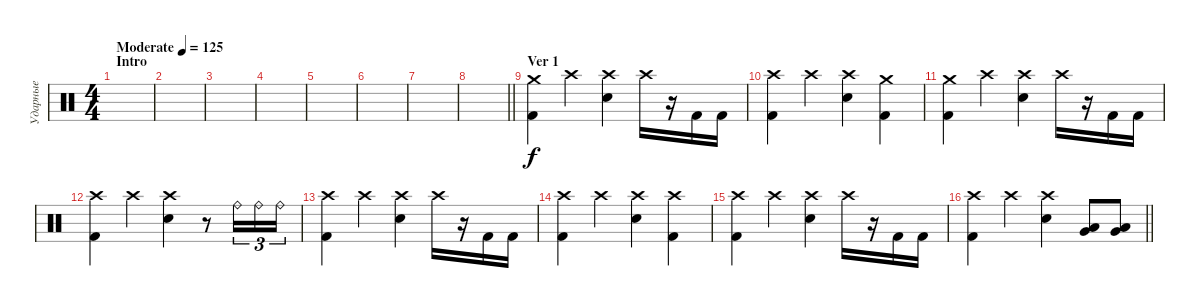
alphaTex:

\track ("Ударные" "Ударные") {instrument percussion}
\staff {score}
\articulation defaults
\ts (4 4)
\section ("" "Intro")
\tempo (125 "Moderate")
\clef neutral
\ks c
|
|
|
|
|
|
|
\barLineRight lightlight
|
\section ("" "Ver 1")
("Crash medium (hit)" "Kick (hit) 2").4 "Crash high (hit)".4 ("Crash high (hit)" "Electric Snare (hit)").4 "Crash high (hit)".16 r.16 "Kick (hit) 2".16 "Kick (hit) 2".16 |
("Crash high (hit)" "Kick (hit) 2").4 "Crash high (hit)".4 ("Crash high (hit)" "Electric Snare (hit)").4 ("Crash medium (hit)" "Kick (hit) 2").4 |
("Crash medium (hit)" "Kick (hit) 2").4 "Crash high (hit)".4 ("Crash high (hit)" "Electric Snare (hit)").4 "Crash high (hit)".16 r.16 "Kick (hit) 2".16 "Kick (hit) 2".16 |
("Crash high (hit)" "Kick (hit) 2").4 "Crash high (hit)".4 ("Crash high (hit)" "Electric Snare (hit)").4 r.8 "Ride (bell)".16{tu (3 2)} "Ride (bell)".16{tu (3 2)} "Ride (bell)".16{tu (3 2)} |
("Crash high (hit)" "Kick (hit) 2").4 "Crash high (hit)".4 ("Crash high (hit)" "Electric Snare (hit)").4 "Crash high (hit)".16 r.16 "Kick (hit) 2".16 "Kick (hit) 2".16 |
("Crash high (hit)" "Kick (hit) 2").4 "Crash high (hit)".4 ("Crash high (hit)" "Electric Snare (hit)").4 ("Crash high (hit)" "Kick (hit) 2").4 |
("Crash high (hit)" "Kick (hit) 2").4 "Crash high (hit)".4 ("Crash high (hit)" "Electric Snare (hit)").4 "Crash high (hit)".16 r.16 "Kick (hit) 2".16 "Kick (hit) 2".16 |
\barLineRight lightlight
("Crash high (hit)" "Kick (hit) 2").4 "Crash high (hit)".4 ("Crash high (hit)" "Electric Snare (hit)").4 ("Very Low Tom (hit)" "Low Tom (hit)").8 ("Very Low Tom (hit)" "Low Tom (hit)").8
